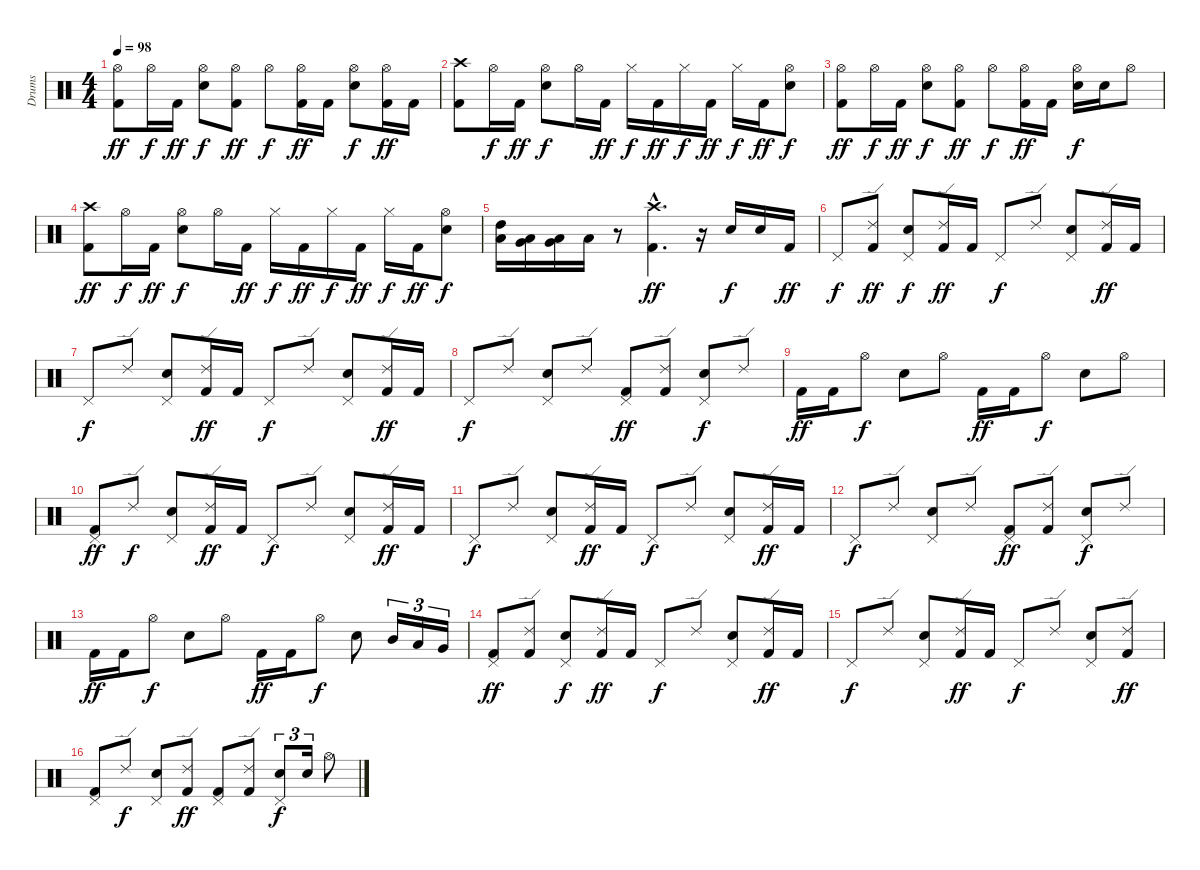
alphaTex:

\track ("Drums" "Drums") {instrument percussion}
\staff {score}
\articulation defaults
\ts (4 4)
\tempo 98
\clef neutral
\ks c
("Hi-Hat (open)" "Kick (hit) 2").8{dy ff} "Hi-Hat (open)".16{dy f} "Kick (hit) 2".16{dy ff} ("Hi-Hat (open)" "Snare (hit) 2").8{dy f} ("Hi-Hat (open)" "Kick (hit) 2").8{dy ff} "Hi-Hat (open)".8{dy f} ("Hi-Hat (open)" "Kick (hit) 2").16{dy ff} "Kick (hit) 2".16 ("Hi-Hat (open)" "Snare (hit) 2").8{dy f} ("Hi-Hat (open)" "Kick (hit) 2").16{dy ff} "Kick (hit) 2".16 |
("Crash high (hit)" "Kick (hit) 2").8 "Hi-Hat (open)".16{dy f} "Kick (hit) 2".16{dy ff} ("Hi-Hat (open)" "Snare (hit) 2").8{dy f} "Hi-Hat (open)".16 "Kick (hit) 2".16{dy ff} "Hi-Hat (closed)".16{dy f} "Kick (hit) 2".16{dy ff} "Hi-Hat (closed)".16{dy f} "Kick (hit) 2".16{dy ff} "Hi-Hat (closed)".16{dy f} "Kick (hit) 2".16{dy ff} ("Hi-Hat (open)" "Snare (hit) 2").8{dy f} |
("Hi-Hat (open)" "Kick (hit) 2").8{dy ff} "Hi-Hat (open)".16{dy f} "Kick (hit) 2".16{dy ff} ("Hi-Hat (open)" "Snare (hit) 2").8{dy f} ("Hi-Hat (open)" "Kick (hit) 2").8{dy ff} "Hi-Hat (open)".8{dy f} ("Hi-Hat (open)" "Kick (hit) 2").16{dy ff} "Kick (hit) 2".16 ("Hi-Hat (open)" "Snare (hit) 2").16{dy f} "Snare (hit) 2".16 "Hi-Hat (open)".8 |
("Crash high (hit)" "Kick (hit) 2").8{dy ff} "Hi-Hat (open)".16{dy f} "Kick (hit) 2".16{dy ff} ("Hi-Hat (open)" "Snare (hit) 2").8{dy f} "Hi-Hat (open)".16 "Kick (hit) 2".16{dy ff} "Hi-Hat (closed)".16{dy f} "Kick (hit) 2".16{dy ff} "Hi-Hat (closed)".16{dy f} "Kick (hit) 2".16{dy ff} "Hi-Hat (closed)".16{dy f} "Kick (hit) 2".16{dy ff} ("Hi-Hat (open)" "Snare (hit) 2").8{dy f} |
("High Tom (hit)" "Low Tom (hit)").16 ("Low Tom (hit)" "Very Low Tom (hit)").16 ("Very Low Tom (hit)" "Low Floor Tom (hit)").16 "Low Floor Tom (hit)".16 r.8 ("Crash high (hit)"{hac} "Kick (hit) 2"{hac}).4{d dy ff} r.16 "Snare (hit) 2".16{dy f} "Snare (hit) 2".16 "Kick (hit) 2".16{dy ff} |
"Pedal Hi-Hat (hit)".8{dy f} ("Ride (edge) 2" "Kick (hit) 2").8{dy ff} ("Pedal Hi-Hat (hit)" "Snare (hit) 2").8{dy f} ("Ride (edge) 2" "Kick (hit) 2").16{dy ff} "Kick (hit) 2".16 "Pedal Hi-Hat (hit)".8{dy f} "Ride (edge) 2".8 ("Pedal Hi-Hat (hit)" "Snare (hit) 2").8 ("Ride (edge) 2" "Kick (hit) 2").16{dy ff} "Kick (hit) 2".16 |
"Pedal Hi-Hat (hit)".8{dy f} "Ride (edge) 2".8 ("Pedal Hi-Hat (hit)" "Snare (hit) 2").8 ("Ride (edge) 2" "Kick (hit) 2").16{dy ff} "Kick (hit) 2".16 "Pedal Hi-Hat (hit)".8{dy f} "Ride (edge) 2".8 ("Pedal Hi-Hat (hit)" "Snare (hit) 2").8 ("Ride (edge) 2" "Kick (hit) 2").16{dy ff} "Kick (hit) 2".16 |
"Pedal Hi-Hat (hit)".8{dy f} "Ride (edge) 2".8 ("Pedal Hi-Hat (hit)" "Snare (hit) 2").8 "Ride (edge) 2".8 ("Pedal Hi-Hat (hit)" "Kick (hit) 2").8{dy ff} ("Ride (edge) 2" "Kick (hit) 2").8 ("Pedal Hi-Hat (hit)" "Snare (hit) 2").8{dy f} "Ride (edge) 2".8 |
"Kick (hit) 2".16{dy ff} "Kick (hit) 2".16 "Hi-Hat (open)".8{dy f} "Snare (hit) 2".8 "Hi-Hat (open)".8 "Kick (hit) 2".16{dy ff} "Kick (hit) 2".16 "Hi-Hat (open)".8{dy f} "Snare (hit) 2".8 "Hi-Hat (open)".8 |
("Pedal Hi-Hat (hit)" "Kick (hit) 2").8{dy ff} "Ride (edge) 2".8{dy f} ("Pedal Hi-Hat (hit)" "Snare (hit) 2").8 ("Ride (edge) 2" "Kick (hit) 2").16{dy ff} "Kick (hit) 2".16 "Pedal Hi-Hat (hit)".8{dy f} "Ride (edge) 2".8 ("Pedal Hi-Hat (hit)" "Snare (hit) 2").8 ("Ride (edge) 2" "Kick (hit) 2").16{dy ff} "Kick (hit) 2".16 |
"Pedal Hi-Hat (hit)".8{dy f} "Ride (edge) 2".8 ("Pedal Hi-Hat (hit)" "Snare (hit) 2").8 ("Ride (edge) 2" "Kick (hit) 2").16{dy ff} "Kick (hit) 2".16 "Pedal Hi-Hat (hit)".8{dy f} "Ride (edge) 2".8 ("Pedal Hi-Hat (hit)" "Snare (hit) 2").8 ("Ride (edge) 2" "Kick (hit) 2").16{dy ff} "Kick (hit) 2".16 |
"Pedal Hi-Hat (hit)".8{dy f} "Ride (edge) 2".8 ("Pedal Hi-Hat (hit)" "Snare (hit) 2").8 "Ride (edge) 2".8 ("Pedal Hi-Hat (hit)" "Kick (hit) 2").8{dy ff} ("Ride (edge) 2" "Kick (hit) 2").8 ("Pedal Hi-Hat (hit)" "Snare (hit) 2").8{dy f} "Ride (edge) 2".8 |
"Kick (hit) 2".16{dy ff} "Kick (hit) 2".16 "Hi-Hat (open)".8{dy f} "Snare (hit) 2".8 "Hi-Hat (open)".8 "Kick (hit) 2".16{dy ff} "Kick (hit) 2".16 "Hi-Hat (open)".8{dy f} "Snare (hit) 2".8 "Mid Tom (hit)".16{tu (3 2)} "Low Tom (hit)".16{tu (3 2)} "Very Low Tom (hit)".16{tu (3 2)} |
("Pedal Hi-Hat (hit)" "Kick (hit) 2").8{dy ff} ("Ride (edge) 2" "Kick (hit) 2").8 ("Pedal Hi-Hat (hit)" "Snare (hit) 2").8{dy f} ("Ride (edge) 2" "Kick (hit) 2").16{dy ff} "Kick (hit) 2".16 "Pedal Hi-Hat (hit)".8{dy f} "Ride (edge) 2".8 ("Pedal Hi-Hat (hit)" "Snare (hit) 2").8 ("Ride (edge) 2" "Kick (hit) 2").16{dy ff} "Kick (hit) 2".16 |
"Pedal Hi-Hat (hit)".8{dy f} "Ride (edge) 2".8 ("Pedal Hi-Hat (hit)" "Snare (hit) 2").8 ("Ride (edge) 2" "Kick (hit) 2").16{dy ff} "Kick (hit) 2".16 "Pedal Hi-Hat (hit)".8{dy f} "Ride (edge) 2".8 ("Pedal Hi-Hat (hit)" "Snare (hit) 2").8 ("Ride (edge) 2" "Kick (hit) 2").8{dy ff} |
("Pedal Hi-Hat (hit)" "Kick (hit) 2").8 "Ride (edge) 2".8{dy f} ("Pedal Hi-Hat (hit)" "Snare (hit) 2").8 ("Ride (edge) 2" "Kick (hit) 2").8{dy ff} ("Pedal Hi-Hat (hit)" "Kick (hit) 2").8 ("Ride (edge) 2" "Kick (hit) 2").8 ("Pedal Hi-Hat (hit)" "Snare (hit) 2").8{tu (3 2) dy f} "Snare (hit) 2".16{tu (3 2)} "Hi-Hat (open)".8
